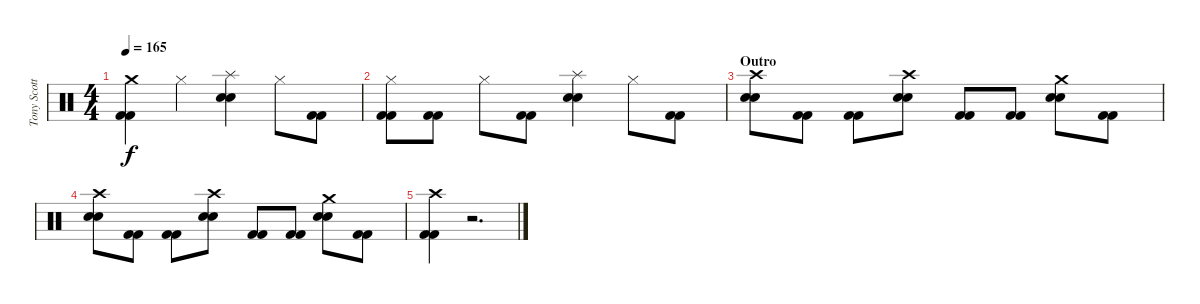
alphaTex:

\track ("Tony Scotto (bateria)" "Tony Scott") {instrument percussion}
\staff {score}
\articulation defaults
\ts (4 4)
\tempo 165
\clef neutral
\ks c
("Crash medium (hit)" "Kick (hit) 2" "Kick (hit) 2").4{dy f} "Hi-Hat (closed)".4 ("Splash (hit)" "Snare (hit) 2" "Snare (hit) 2").4 "Hi-Hat (closed)".8 ("Kick (hit) 2" "Kick (hit) 2").8 |
("Hi-Hat (closed)" "Kick (hit) 2" "Kick (hit) 2").8 ("Kick (hit) 2" "Kick (hit) 2").8 "Hi-Hat (closed)".8 ("Kick (hit) 2" "Kick (hit) 2").8 ("Splash (hit)" "Snare (hit) 2" "Snare (hit) 2").4 "Hi-Hat (closed)".8 ("Kick (hit) 2" "Kick (hit) 2").8 |
\section ("" "Outro")
("Crash high (hit)" "Snare (hit) 2" "Snare (hit) 2").8 ("Kick (hit) 2" "Kick (hit) 2").8 ("Kick (hit) 2" "Kick (hit) 2").8 ("Crash high (hit)" "Snare (hit) 2" "Snare (hit) 2").8 ("Kick (hit) 2" "Kick (hit) 2").8 ("Kick (hit) 2" "Kick (hit) 2").8 ("Crash medium (hit)" "Snare (hit) 2" "Snare (hit) 2").8 ("Kick (hit) 2" "Kick (hit) 2").8 |
("Crash high (hit)" "Snare (hit) 2" "Snare (hit) 2").8 ("Kick (hit) 2" "Kick (hit) 2").8 ("Kick (hit) 2" "Kick (hit) 2").8 ("Crash high (hit)" "Snare (hit) 2" "Snare (hit) 2").8 ("Kick (hit) 2" "Kick (hit) 2").8 ("Kick (hit) 2" "Kick (hit) 2").8 ("Crash medium (hit)" "Snare (hit) 2" "Snare (hit) 2").8 ("Kick (hit) 2" "Kick (hit) 2").8 |
("Crash high (hit)" "Kick (hit) 2" "Kick (hit) 2").4 r.2{d}
